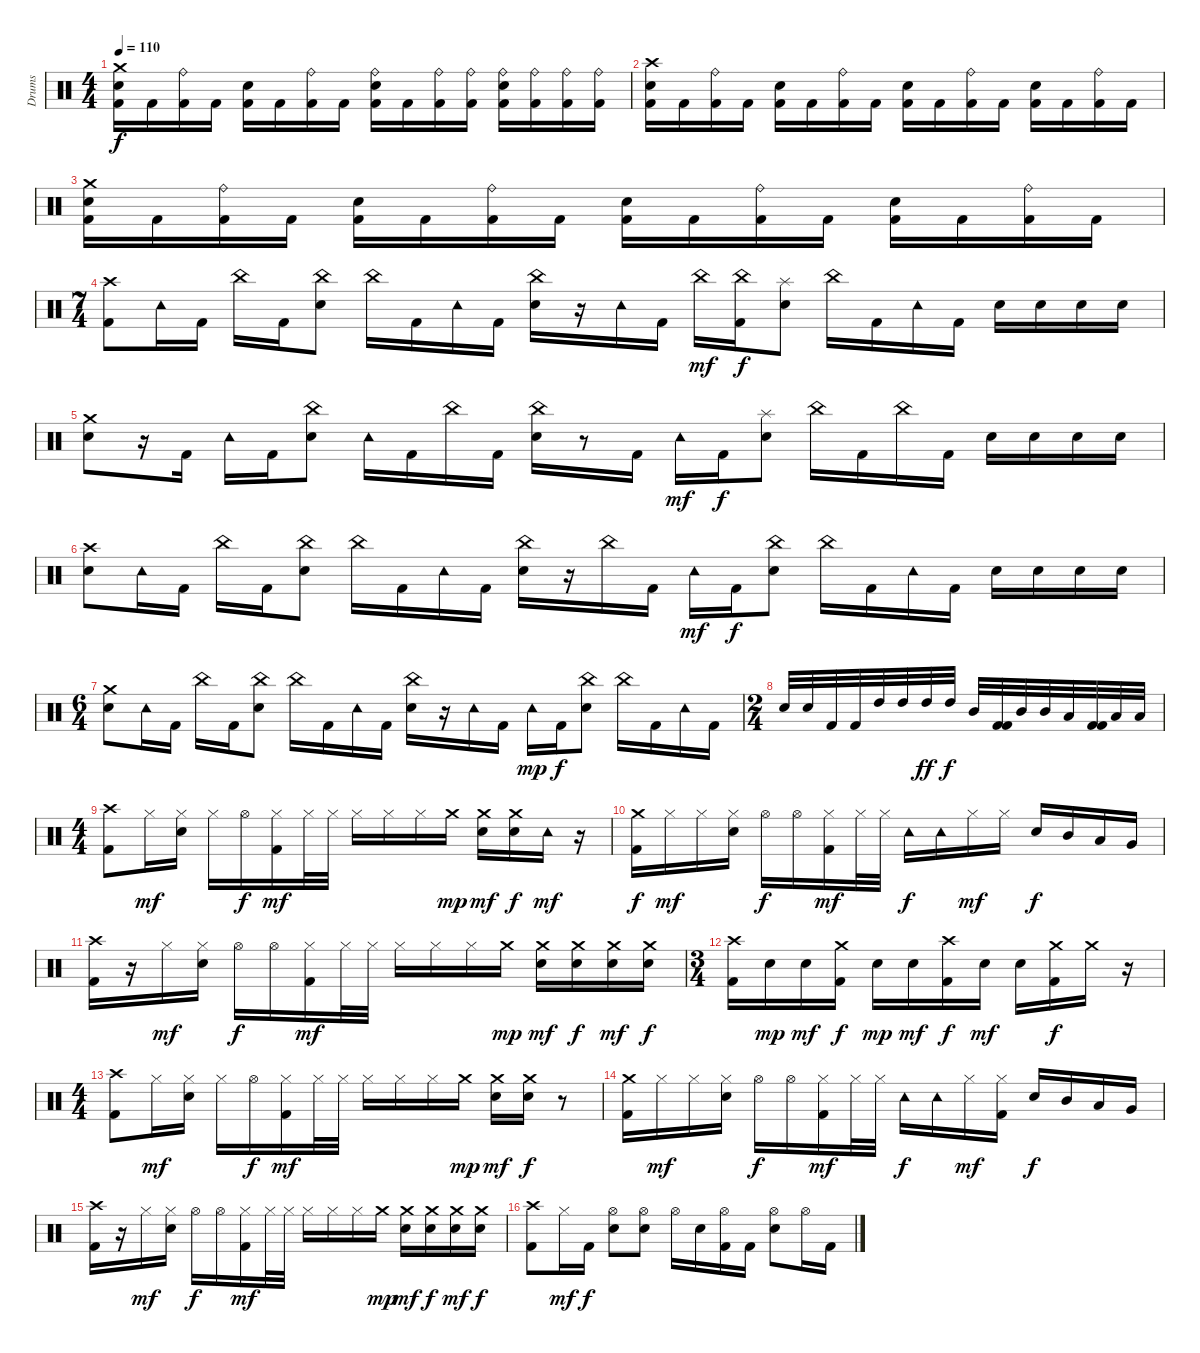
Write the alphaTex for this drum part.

\track ("Drums" "Drums") {instrument percussion}
\staff {score}
\articulation defaults
\ts (4 4)
\tempo 110
\clef neutral
\ks c
("Kick (hit) 2" "Electric Snare (hit)" "Crash medium (hit)").16{dy f} "Kick (hit) 2".16 ("Kick (hit) 2" "Ride (bell)").16 "Kick (hit) 2".16 ("Kick (hit) 2" "Electric Snare (hit)").16 "Kick (hit) 2".16 ("Kick (hit) 2" "Ride (bell)").16 "Kick (hit) 2".16 ("Kick (hit) 2" "Electric Snare (hit)" "Ride (bell)").16 "Kick (hit) 2".16 ("Kick (hit) 2" "Ride (bell)").16 ("Kick (hit) 2" "Ride (bell)").16 ("Kick (hit) 2" "Electric Snare (hit)" "Ride (bell)").16 ("Kick (hit) 2" "Ride (bell)").16 ("Kick (hit) 2" "Ride (bell)").16 ("Kick (hit) 2" "Ride (bell)").16 |
("Crash high (hit)" "Electric Snare (hit)" "Kick (hit) 2").16 "Kick (hit) 2".16 ("Kick (hit) 2" "Ride (bell)").16 "Kick (hit) 2".16 ("Kick (hit) 2" "Electric Snare (hit)").16 "Kick (hit) 2".16 ("Kick (hit) 2" "Ride (bell)").16 "Kick (hit) 2".16 ("Kick (hit) 2" "Electric Snare (hit)").16 "Kick (hit) 2".16 ("Kick (hit) 2" "Ride (bell)").16 "Kick (hit) 2".16 ("Kick (hit) 2" "Electric Snare (hit)").16 "Kick (hit) 2".16 ("Kick (hit) 2" "Ride (bell)").16 "Kick (hit) 2".16 |
("Kick (hit) 2" "Electric Snare (hit)" "Crash medium (hit)").16 "Kick (hit) 2".16 ("Kick (hit) 2" "Ride (bell)").16 "Kick (hit) 2".16 ("Kick (hit) 2" "Electric Snare (hit)").16 "Kick (hit) 2".16 ("Kick (hit) 2" "Ride (bell)").16 "Kick (hit) 2".16 ("Kick (hit) 2" "Electric Snare (hit)").16 "Kick (hit) 2".16 ("Kick (hit) 2" "Ride (bell)").16 "Kick (hit) 2".16 ("Kick (hit) 2" "Electric Snare (hit)").16 "Kick (hit) 2".16 ("Kick (hit) 2" "Ride (bell)").16 "Kick (hit) 2".16 |
\ts (7 4)
("Crash high (hit)" "Kick (hit) 2").8 "Tambourine (hit)".16 "Kick (hit) 2".16 "China (hit)".16 "Kick (hit) 2".16 ("Electric Snare (hit)" "China (hit)").8 "China (hit)".16 "Kick (hit) 2".16 "Tambourine (hit)".16 "Kick (hit) 2".16 ("Electric Snare (hit)" "China (hit)").16 r.16 "Tambourine (hit)".16 "Kick (hit) 2".16 "China (hit)".16{dy mf} ("Kick (hit) 2" "China (hit)").16{dy f} ("Electric Snare (hit)" "Splash (hit)").8 "China (hit)".16 "Kick (hit) 2".16 "Tambourine (hit)".16 "Kick (hit) 2".16 "Electric Snare (hit)".16 "Electric Snare (hit)".16 "Electric Snare (hit)".16 "Electric Snare (hit)".16 |
("Electric Snare (hit)" "Crash medium (hit)").8 r.16 "Kick (hit) 2".16 "Tambourine (hit)".16 "Kick (hit) 2".16 ("Electric Snare (hit)" "China (hit)").8 "Tambourine (hit)".16 "Kick (hit) 2".16 "China (hit)".16 "Kick (hit) 2".16 ("Electric Snare (hit)" "China (hit)").16 r.8 "Kick (hit) 2".16 "Tambourine (hit)".16{dy mf} "Kick (hit) 2".16{dy f} ("Electric Snare (hit)" "Splash (hit)").8 "China (hit)".16 "Kick (hit) 2".16 "China (hit)".16 "Kick (hit) 2".16 "Electric Snare (hit)".16 "Electric Snare (hit)".16 "Electric Snare (hit)".16 "Electric Snare (hit)".16 |
("Crash high (hit)" "Electric Snare (hit)").8 "Tambourine (hit)".16 "Kick (hit) 2".16 "China (hit)".16 "Kick (hit) 2".16 ("Electric Snare (hit)" "China (hit)").8 "China (hit)".16 "Kick (hit) 2".16 "Tambourine (hit)".16 "Kick (hit) 2".16 ("Electric Snare (hit)" "China (hit)").16 r.16 "China (hit)".16 "Kick (hit) 2".16 "Tambourine (hit)".16{dy mf} "Kick (hit) 2".16{dy f} ("Electric Snare (hit)" "China (hit)").8 "China (hit)".16 "Kick (hit) 2".16 "Tambourine (hit)".16 "Kick (hit) 2".16 "Electric Snare (hit)".16 "Electric Snare (hit)".16 "Electric Snare (hit)".16 "Electric Snare (hit)".16 |
\ts (6 4)
("Crash medium (hit)" "Electric Snare (hit)").8 "Tambourine (hit)".16 "Kick (hit) 2".16 "China (hit)".16 "Kick (hit) 2".16 ("Electric Snare (hit)" "China (hit)").8 "China (hit)".16 "Kick (hit) 2".16 "Tambourine (hit)".16 "Kick (hit) 2".16 ("Electric Snare (hit)" "China (hit)").16 r.16 "Tambourine (hit)".16 "Kick (hit) 2".16 "Tambourine (hit)".16{dy mp} "Kick (hit) 2".16{dy f} ("China (hit)" "Electric Snare (hit)").8 "China (hit)".16 "Kick (hit) 2".16 "Tambourine (hit)".16 "Kick (hit) 2".16 |
\ts (2 4)
"Electric Snare (hit)".32 "Electric Snare (hit)".32 "Kick (hit) 2".32 "Kick (hit) 2".32 "High Tom (hit)".32 "High Tom (hit)".32 "High Tom (hit)".32{dy ff} "High Tom (hit)".32{dy f} "Mid Tom (hit)".32 ("Kick (hit) 2" "Kick (hit) 2").32 "Mid Tom (hit)".32 "Mid Tom (hit)".32 "Low Tom (hit)".32 ("Kick (hit) 2" "Kick (hit) 2").32 "Low Tom (hit)".32 "Low Tom (hit)".32 |
\ts (4 4)
("Crash high (hit)" "Kick (hit) 2").8 "Hi-Hat (closed)".16{dy mf} ("Electric Snare (hit)" "Hi-Hat (closed)").16 "Hi-Hat (closed)".16 "Hi-Hat (open)".16{dy f} ("Kick (hit) 2" "Hi-Hat (closed)").16{dy mf} "Hi-Hat (closed)".32 "Hi-Hat (closed)".32 "Hi-Hat (closed)".16 "Hi-Hat (closed)".16 "Hi-Hat (closed)".16 "Crash medium (hit)".16{dy mp} ("Electric Snare (hit)" "Crash medium (hit)").16{dy mf} ("Electric Snare (hit)" "Crash medium (hit)").16{dy f} "Tambourine (hit)".16{dy mf} r.16 |
("Kick (hit) 2" "Crash medium (hit)").16{dy f} "Hi-Hat (closed)".16{dy mf} "Hi-Hat (closed)".16 ("Electric Snare (hit)" "Hi-Hat (closed)").16 "Hi-Hat (open)".16{dy f} "Hi-Hat (open)".16 ("Kick (hit) 2" "Hi-Hat (closed)").16{dy mf} "Hi-Hat (closed)".32 "Hi-Hat (closed)".32 "Tambourine (hit)".16{dy f} "Tambourine (hit)".16 "Hi-Hat (closed)".16{dy mf} "Hi-Hat (closed)".16 "Electric Snare (hit)".16{dy f} "Mid Tom (hit)".16 "Low Tom (hit)".16 "Very Low Tom (hit)".16 |
("Kick (hit) 2" "Crash high (hit)").16 r.16 "Hi-Hat (closed)".16{dy mf} ("Electric Snare (hit)" "Hi-Hat (closed)").16 "Hi-Hat (open)".16{dy f} "Hi-Hat (open)".16 ("Kick (hit) 2" "Hi-Hat (closed)").16{dy mf} "Hi-Hat (closed)".32 "Hi-Hat (closed)".32 "Hi-Hat (closed)".16 "Hi-Hat (closed)".16 "Hi-Hat (closed)".16 "Crash medium (hit)".16{dy mp} ("Electric Snare (hit)" "Crash medium (hit)").16{dy mf} ("Electric Snare (hit)" "Crash medium (hit)").16{dy f} ("Crash medium (hit)" "Electric Snare (hit)").16{dy mf} ("Electric Snare (hit)" "Crash medium (hit)").16{dy f} |
\ts (3 4)
("Kick (hit) 2" "Crash high (hit)").16 "Electric Snare (hit)".16{dy mp} "Electric Snare (hit)".16{dy mf} ("Kick (hit) 2" "Crash medium (hit)").16{dy f} "Electric Snare (hit)".16{dy mp} "Electric Snare (hit)".16{dy mf} ("Kick (hit) 2" "Crash high (hit)").16{dy f} "Electric Snare (hit)".16{dy mf} "Electric Snare (hit)".16 ("Kick (hit) 2" "Crash medium (hit)").16{dy f} "Crash medium (hit)".16 r.16 |
\ts (4 4)
("Kick (hit) 2" "Crash high (hit)").8 "Hi-Hat (closed)".16{dy mf} ("Electric Snare (hit)" "Hi-Hat (closed)").16 "Hi-Hat (closed)".16 "Hi-Hat (open)".16{dy f} ("Kick (hit) 2" "Hi-Hat (closed)").16{dy mf} "Hi-Hat (closed)".32 "Hi-Hat (closed)".32 "Hi-Hat (closed)".16 "Hi-Hat (closed)".16 "Hi-Hat (closed)".16 "Crash medium (hit)".16{dy mp} ("Electric Snare (hit)" "Crash medium (hit)").16{dy mf} ("Electric Snare (hit)" "Crash medium (hit)").16{dy f} r.8 |
("Crash medium (hit)" "Kick (hit) 2").16 "Hi-Hat (closed)".16{dy mf} "Hi-Hat (closed)".16 ("Electric Snare (hit)" "Hi-Hat (closed)").16 "Hi-Hat (open)".16{dy f} "Hi-Hat (open)".16 ("Kick (hit) 2" "Hi-Hat (closed)").16{dy mf} "Hi-Hat (closed)".32 "Hi-Hat (closed)".32 "Tambourine (hit)".16{dy f} "Tambourine (hit)".16 "Hi-Hat (closed)".16{dy mf} ("Kick (hit) 2" "Hi-Hat (closed)").16 "Electric Snare (hit)".16{dy f} "Mid Tom (hit)".16 "Low Tom (hit)".16 "Very Low Tom (hit)".16 |
("Crash high (hit)" "Kick (hit) 2").16 r.16 "Hi-Hat (closed)".16{dy mf} ("Electric Snare (hit)" "Hi-Hat (closed)").16 "Hi-Hat (open)".16{dy f} "Hi-Hat (open)".16 ("Kick (hit) 2" "Hi-Hat (closed)").16{dy mf} "Hi-Hat (closed)".32 "Hi-Hat (closed)".32 "Hi-Hat (closed)".16 "Hi-Hat (closed)".16 "Hi-Hat (closed)".16 "Crash medium (hit)".16{dy mp} ("Electric Snare (hit)" "Crash medium (hit)").16{dy mf} ("Electric Snare (hit)" "Crash medium (hit)").16{dy f} ("Crash medium (hit)" "Electric Snare (hit)").16{dy mf} ("Electric Snare (hit)" "Crash medium (hit)").16{dy f} |
("Crash high (hit)" "Kick (hit) 2").8 "Hi-Hat (closed)".16{dy mf} "Kick (hit) 2".16{dy f} ("Electric Snare (hit)" "Hi-Hat (open)").8 ("Hi-Hat (open)" "Electric Snare (hit)").8 "Hi-Hat (open)".16 "Electric Snare (hit)".16 ("Hi-Hat (open)" "Kick (hit) 2").16 "Kick (hit) 2".16 ("Electric Snare (hit)" "Hi-Hat (open)").8 "Hi-Hat (open)".16 "Kick (hit) 2".16
